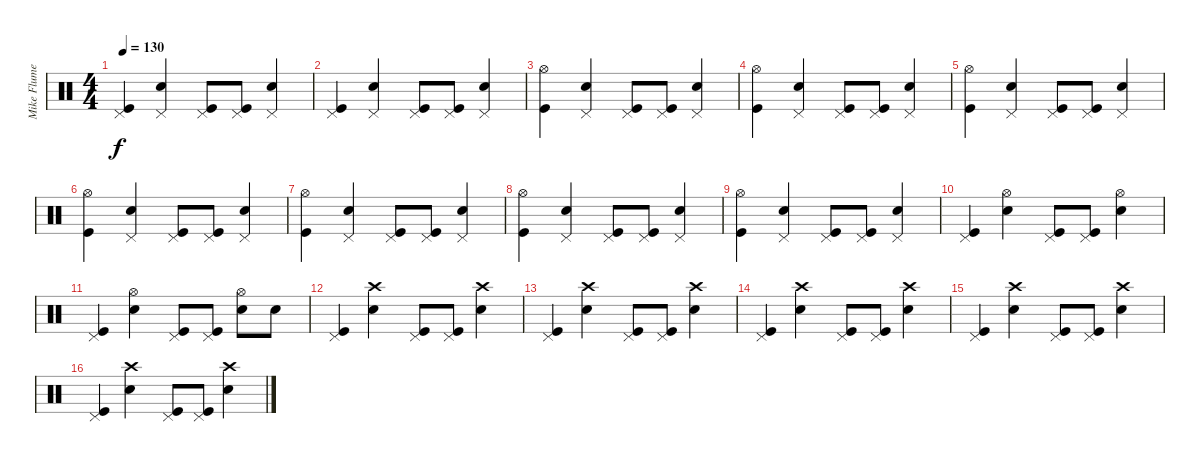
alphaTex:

\track ("Mike Flumee" "Mike Flume") {instrument percussion}
\staff {score}
\articulation defaults
\ts (4 4)
\tempo 130
\clef neutral
\ks c
("Pedal Hi-Hat (hit)" "Kick (hit)").4{dy f} ("Pedal Hi-Hat (hit)" "Electric Snare (hit)").4 ("Pedal Hi-Hat (hit)" "Kick (hit)").8 ("Pedal Hi-Hat (hit)" "Kick (hit)").8 ("Pedal Hi-Hat (hit)" "Electric Snare (hit)").4 |
("Pedal Hi-Hat (hit)" "Kick (hit)").4 ("Pedal Hi-Hat (hit)" "Electric Snare (hit)").4 ("Pedal Hi-Hat (hit)" "Kick (hit)").8 ("Pedal Hi-Hat (hit)" "Kick (hit)").8 ("Pedal Hi-Hat (hit)" "Electric Snare (hit)").4 |
("Hi-Hat (open)" "Kick (hit)").4 ("Pedal Hi-Hat (hit)" "Electric Snare (hit)").4 ("Pedal Hi-Hat (hit)" "Kick (hit)").8 ("Pedal Hi-Hat (hit)" "Kick (hit)").8 ("Pedal Hi-Hat (hit)" "Electric Snare (hit)").4 |
("Hi-Hat (open)" "Kick (hit)").4 ("Pedal Hi-Hat (hit)" "Electric Snare (hit)").4 ("Pedal Hi-Hat (hit)" "Kick (hit)").8 ("Pedal Hi-Hat (hit)" "Kick (hit)").8 ("Pedal Hi-Hat (hit)" "Electric Snare (hit)").4 |
("Hi-Hat (open)" "Kick (hit)").4 ("Pedal Hi-Hat (hit)" "Electric Snare (hit)").4 ("Pedal Hi-Hat (hit)" "Kick (hit)").8 ("Pedal Hi-Hat (hit)" "Kick (hit)").8 ("Pedal Hi-Hat (hit)" "Electric Snare (hit)").4 |
("Hi-Hat (open)" "Kick (hit)").4 ("Pedal Hi-Hat (hit)" "Electric Snare (hit)").4 ("Pedal Hi-Hat (hit)" "Kick (hit)").8 ("Pedal Hi-Hat (hit)" "Kick (hit)").8 ("Pedal Hi-Hat (hit)" "Electric Snare (hit)").4 |
("Hi-Hat (open)" "Kick (hit)").4 ("Pedal Hi-Hat (hit)" "Electric Snare (hit)").4 ("Pedal Hi-Hat (hit)" "Kick (hit)").8 ("Pedal Hi-Hat (hit)" "Kick (hit)").8 ("Pedal Hi-Hat (hit)" "Electric Snare (hit)").4 |
("Hi-Hat (open)" "Kick (hit)").4 ("Pedal Hi-Hat (hit)" "Electric Snare (hit)").4 ("Pedal Hi-Hat (hit)" "Kick (hit)").8 ("Pedal Hi-Hat (hit)" "Kick (hit)").8 ("Pedal Hi-Hat (hit)" "Electric Snare (hit)").4 |
("Hi-Hat (open)" "Kick (hit)").4 ("Pedal Hi-Hat (hit)" "Electric Snare (hit)").4 ("Pedal Hi-Hat (hit)" "Kick (hit)").8 ("Pedal Hi-Hat (hit)" "Kick (hit)").8 ("Pedal Hi-Hat (hit)" "Electric Snare (hit)").4 |
("Pedal Hi-Hat (hit)" "Kick (hit)").4 ("Hi-Hat (open)" "Electric Snare (hit)").4 ("Pedal Hi-Hat (hit)" "Kick (hit)").8 ("Pedal Hi-Hat (hit)" "Kick (hit)").8 ("Hi-Hat (open)" "Electric Snare (hit)").4 |
("Pedal Hi-Hat (hit)" "Kick (hit)").4 ("Hi-Hat (open)" "Electric Snare (hit)").4 ("Pedal Hi-Hat (hit)" "Kick (hit)").8 ("Pedal Hi-Hat (hit)" "Kick (hit)").8 ("Hi-Hat (open)" "Electric Snare (hit)").8 "Electric Snare (hit)".8 |
("Pedal Hi-Hat (hit)" "Kick (hit)").4 ("Crash high (hit)" "Electric Snare (hit)").4 ("Pedal Hi-Hat (hit)" "Kick (hit)").8 ("Pedal Hi-Hat (hit)" "Kick (hit)").8 ("Crash high (hit)" "Electric Snare (hit)").4 |
("Pedal Hi-Hat (hit)" "Kick (hit)").4 ("Crash high (hit)" "Electric Snare (hit)").4 ("Pedal Hi-Hat (hit)" "Kick (hit)").8 ("Pedal Hi-Hat (hit)" "Kick (hit)").8 ("Crash high (hit)" "Electric Snare (hit)").4 |
("Pedal Hi-Hat (hit)" "Kick (hit)").4 ("Crash high (hit)" "Electric Snare (hit)").4 ("Pedal Hi-Hat (hit)" "Kick (hit)").8 ("Pedal Hi-Hat (hit)" "Kick (hit)").8 ("Crash high (hit)" "Electric Snare (hit)").4 |
("Pedal Hi-Hat (hit)" "Kick (hit)").4 ("Crash high (hit)" "Electric Snare (hit)").4 ("Pedal Hi-Hat (hit)" "Kick (hit)").8 ("Pedal Hi-Hat (hit)" "Kick (hit)").8 ("Crash high (hit)" "Electric Snare (hit)").4 |
("Pedal Hi-Hat (hit)" "Kick (hit)").4 ("Crash high (hit)" "Electric Snare (hit)").4 ("Pedal Hi-Hat (hit)" "Kick (hit)").8 ("Pedal Hi-Hat (hit)" "Kick (hit)").8 ("Crash high (hit)" "Electric Snare (hit)").4
